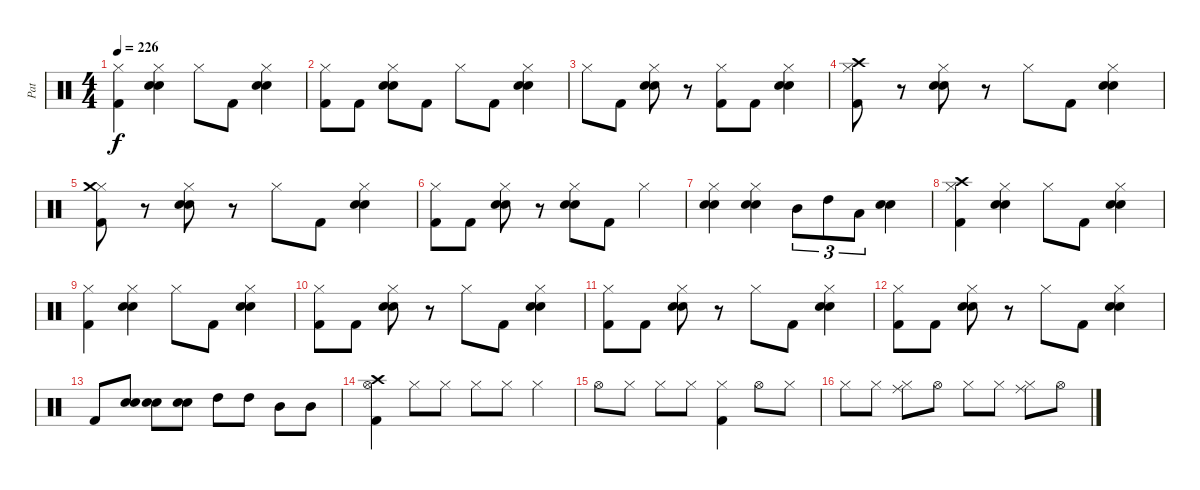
\track ("Pat" "Pat") {instrument percussion}
\staff {score}
\articulation defaults
\ts (4 4)
\tempo 226
\clef neutral
\ks c
("Hi-Hat (closed)" "Kick (hit) 2").4{dy f} ("Hi-Hat (closed)" "Snare (hit) 2" "Electric Snare (hit)").4 "Hi-Hat (closed)".8 "Kick (hit) 2".8 ("Hi-Hat (closed)" "Snare (hit) 2" "Electric Snare (hit)").4 |
("Hi-Hat (closed)" "Kick (hit) 2").8 "Kick (hit) 2".8 ("Hi-Hat (closed)" "Snare (hit) 2" "Electric Snare (hit)").8 "Kick (hit) 2".8 "Hi-Hat (closed)".8 "Kick (hit) 2".8 ("Hi-Hat (closed)" "Snare (hit) 2" "Electric Snare (hit)").4 |
"Hi-Hat (closed)".8 "Kick (hit) 2".8 ("Hi-Hat (closed)" "Snare (hit) 2" "Electric Snare (hit)").8 r.8 ("Hi-Hat (closed)" "Kick (hit) 2").8 "Kick (hit) 2".8 ("Hi-Hat (closed)" "Snare (hit) 2" "Electric Snare (hit)").4 |
("Hi-Hat (closed)" "Crash high (hit)" "Kick (hit) 2").8 r.8 ("Hi-Hat (closed)" "Snare (hit) 2" "Electric Snare (hit)").8 r.8 "Hi-Hat (closed)".8 "Kick (hit) 2".8 ("Hi-Hat (closed)" "Snare (hit) 2" "Electric Snare (hit)").4 |
("Hi-Hat (closed)" "Crash medium (hit)" "Kick (hit) 2").8 r.8 ("Hi-Hat (closed)" "Snare (hit) 2" "Electric Snare (hit)").8 r.8 "Hi-Hat (closed)".8 "Kick (hit) 2".8 ("Hi-Hat (closed)" "Snare (hit) 2" "Electric Snare (hit)").4 |
("Hi-Hat (closed)" "Kick (hit) 2").8 "Kick (hit) 2".8 ("Hi-Hat (closed)" "Snare (hit) 2" "Electric Snare (hit)").8 r.8 ("Hi-Hat (closed)" "Snare (hit) 2" "Electric Snare (hit)").8 "Kick (hit) 2".8 "Hi-Hat (closed)".4 |
("Hi-Hat (closed)" "Snare (hit) 2" "Electric Snare (hit)").4 ("Hi-Hat (closed)" "Snare (hit) 2" "Electric Snare (hit)").4 "Mid Tom (hit)".8{tu (3 2)} "High Tom (hit)".8{tu (3 2)} "Low Tom (hit)".8{tu (3 2)} ("Snare (hit) 2" "Electric Snare (hit)").4 |
("Hi-Hat (closed)" "Crash high (hit)" "Kick (hit) 2").4 ("Hi-Hat (closed)" "Snare (hit) 2" "Electric Snare (hit)").4 "Hi-Hat (closed)".8 "Kick (hit) 2".8 ("Hi-Hat (closed)" "Snare (hit) 2" "Electric Snare (hit)").4 |
("Hi-Hat (closed)" "Kick (hit) 2").4 ("Hi-Hat (closed)" "Snare (hit) 2" "Electric Snare (hit)").4 "Hi-Hat (closed)".8 "Kick (hit) 2".8 ("Hi-Hat (closed)" "Snare (hit) 2" "Electric Snare (hit)").4 |
("Hi-Hat (closed)" "Kick (hit) 2").8 "Kick (hit) 2".8 ("Hi-Hat (closed)" "Snare (hit) 2" "Electric Snare (hit)").8 r.8 "Hi-Hat (closed)".8 "Kick (hit) 2".8 ("Hi-Hat (closed)" "Snare (hit) 2" "Electric Snare (hit)").4 |
("Hi-Hat (closed)" "Kick (hit) 2").8 "Kick (hit) 2".8 ("Hi-Hat (closed)" "Snare (hit) 2" "Electric Snare (hit)").8 r.8 "Hi-Hat (closed)".8 "Kick (hit) 2".8 ("Hi-Hat (closed)" "Snare (hit) 2" "Electric Snare (hit)").4 |
("Hi-Hat (closed)" "Kick (hit) 2").8 "Kick (hit) 2".8 ("Hi-Hat (closed)" "Snare (hit) 2" "Electric Snare (hit)").8 r.8 "Hi-Hat (closed)".8 "Kick (hit) 2".8 ("Hi-Hat (closed)" "Snare (hit) 2" "Electric Snare (hit)").4 |
"Kick (hit) 2".8 ("Snare (hit) 2" "Electric Snare (hit)").8 ("Snare (hit) 2" "Electric Snare (hit)").8 ("Snare (hit) 2" "Electric Snare (hit)").8 "High Tom (hit)".8 "High Tom (hit)".8 "Mid Tom (hit)".8 "Mid Tom (hit)".8 |
("Hi-Hat (open)" "Crash high (hit)" "Kick (hit) 2").4 "Hi-Hat (closed)".8 "Hi-Hat (closed)".8 "Hi-Hat (closed)".8 "Hi-Hat (closed)".8 "Hi-Hat (closed)".4 |
"Hi-Hat (open)".8 "Hi-Hat (closed)".8 "Hi-Hat (closed)".8 "Hi-Hat (closed)".8 ("Hi-Hat (closed)" "Kick (hit) 2").4 "Hi-Hat (open)".8 "Hi-Hat (closed)".8 |
"Hi-Hat (closed)".8 "Hi-Hat (closed)".8 ("Hi-Hat (closed)" "Ride (middle)").8 "Hi-Hat (open)".8 "Hi-Hat (closed)".8 "Hi-Hat (closed)".8 ("Hi-Hat (closed)" "Ride (middle)").8 "Hi-Hat (open)".8
